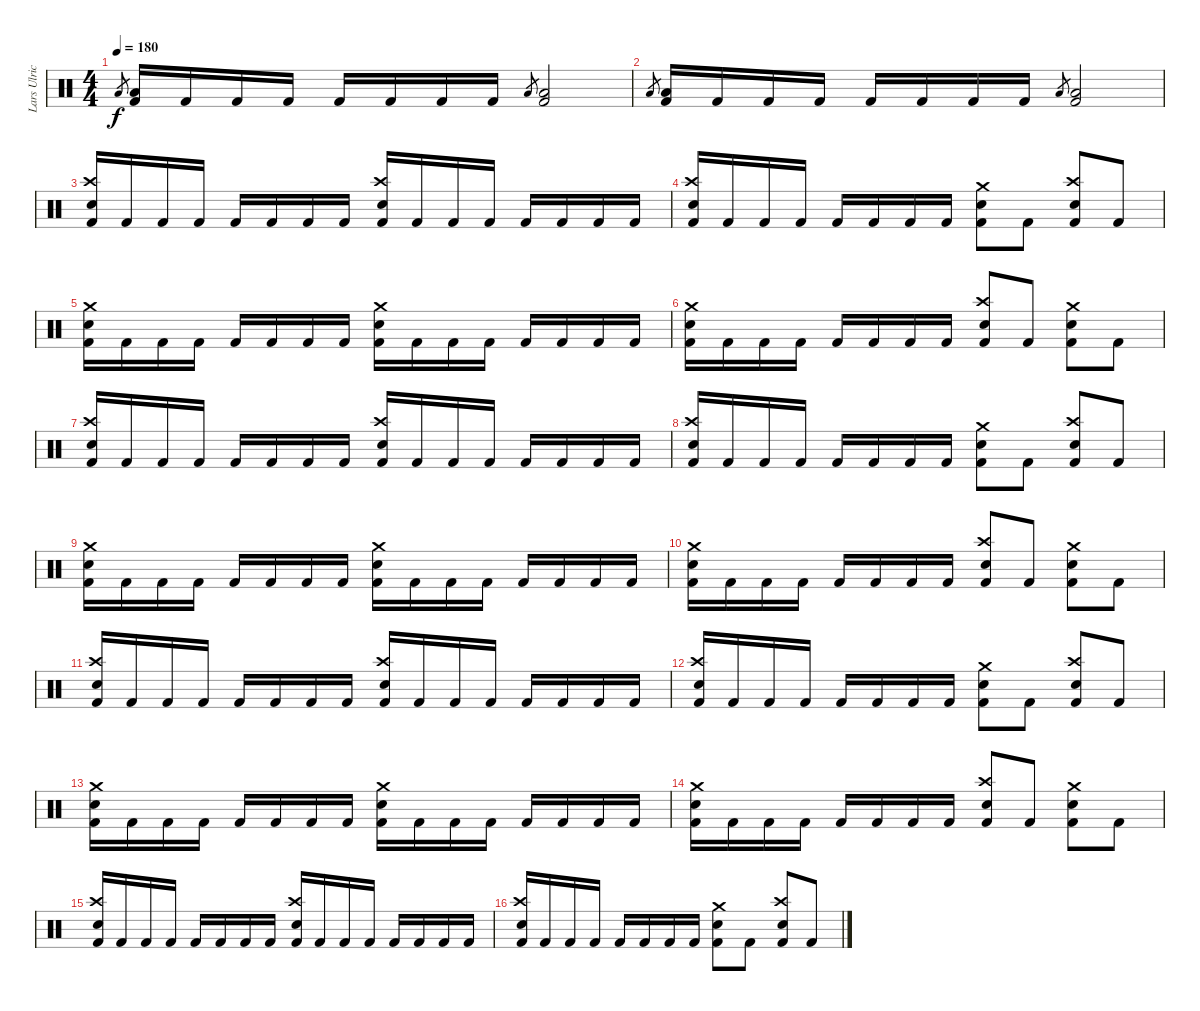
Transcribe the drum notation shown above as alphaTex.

\track ("Lars Ulrich" "Lars Ulric") {instrument percussion}
\staff {score}
\articulation defaults
\ts (4 4)
\tempo 180
\clef neutral
\ks c "Low Floor Tom (hit)".8{gr dy f}
("Low Floor Tom (hit)" "Kick (hit) 2").16 "Kick (hit) 2".16 "Kick (hit) 2".16 "Kick (hit) 2".16 "Kick (hit) 2".16 "Kick (hit) 2".16 "Kick (hit) 2".16 "Kick (hit) 2".16 "Low Floor Tom (hit)".8{gr} ("Low Floor Tom (hit)" "Kick (hit) 2").2 |
"Low Floor Tom (hit)".8{gr} ("Low Floor Tom (hit)" "Kick (hit) 2").16 "Kick (hit) 2".16 "Kick (hit) 2".16 "Kick (hit) 2".16 "Kick (hit) 2".16 "Kick (hit) 2".16 "Kick (hit) 2".16 "Kick (hit) 2".16 "Low Floor Tom (hit)".8{gr} ("Low Floor Tom (hit)" "Kick (hit) 2").2 |
("Crash high (hit)" "Electric Snare (hit)" "Kick (hit) 2").16 "Kick (hit) 2".16 "Kick (hit) 2".16 "Kick (hit) 2".16 "Kick (hit) 2".16 "Kick (hit) 2".16 "Kick (hit) 2".16 "Kick (hit) 2".16 ("Crash high (hit)" "Electric Snare (hit)" "Kick (hit) 2").16 "Kick (hit) 2".16 "Kick (hit) 2".16 "Kick (hit) 2".16 "Kick (hit) 2".16 "Kick (hit) 2".16 "Kick (hit) 2".16 "Kick (hit) 2".16 |
("Crash high (hit)" "Electric Snare (hit)" "Kick (hit) 2").16 "Kick (hit) 2".16 "Kick (hit) 2".16 "Kick (hit) 2".16 "Kick (hit) 2".16 "Kick (hit) 2".16 "Kick (hit) 2".16 "Kick (hit) 2".16 ("Crash medium (hit)" "Electric Snare (hit)" "Kick (hit) 2").8 "Kick (hit) 2".8 ("Crash high (hit)" "Electric Snare (hit)" "Kick (hit) 2").8 "Kick (hit) 2".8 |
("Crash medium (hit)" "Electric Snare (hit)" "Kick (hit) 2").16 "Kick (hit) 2".16 "Kick (hit) 2".16 "Kick (hit) 2".16 "Kick (hit) 2".16 "Kick (hit) 2".16 "Kick (hit) 2".16 "Kick (hit) 2".16 ("Crash medium (hit)" "Electric Snare (hit)" "Kick (hit) 2").16 "Kick (hit) 2".16 "Kick (hit) 2".16 "Kick (hit) 2".16 "Kick (hit) 2".16 "Kick (hit) 2".16 "Kick (hit) 2".16 "Kick (hit) 2".16 |
("Crash medium (hit)" "Electric Snare (hit)" "Kick (hit) 2").16 "Kick (hit) 2".16 "Kick (hit) 2".16 "Kick (hit) 2".16 "Kick (hit) 2".16 "Kick (hit) 2".16 "Kick (hit) 2".16 "Kick (hit) 2".16 ("Crash high (hit)" "Electric Snare (hit)" "Kick (hit) 2").8 "Kick (hit) 2".8 ("Crash medium (hit)" "Electric Snare (hit)" "Kick (hit) 2").8 "Kick (hit) 2".8 |
("Crash high (hit)" "Electric Snare (hit)" "Kick (hit) 2").16 "Kick (hit) 2".16 "Kick (hit) 2".16 "Kick (hit) 2".16 "Kick (hit) 2".16 "Kick (hit) 2".16 "Kick (hit) 2".16 "Kick (hit) 2".16 ("Crash high (hit)" "Electric Snare (hit)" "Kick (hit) 2").16 "Kick (hit) 2".16 "Kick (hit) 2".16 "Kick (hit) 2".16 "Kick (hit) 2".16 "Kick (hit) 2".16 "Kick (hit) 2".16 "Kick (hit) 2".16 |
("Crash high (hit)" "Electric Snare (hit)" "Kick (hit) 2").16 "Kick (hit) 2".16 "Kick (hit) 2".16 "Kick (hit) 2".16 "Kick (hit) 2".16 "Kick (hit) 2".16 "Kick (hit) 2".16 "Kick (hit) 2".16 ("Crash medium (hit)" "Electric Snare (hit)" "Kick (hit) 2").8 "Kick (hit) 2".8 ("Crash high (hit)" "Electric Snare (hit)" "Kick (hit) 2").8 "Kick (hit) 2".8 |
("Crash medium (hit)" "Electric Snare (hit)" "Kick (hit) 2").16 "Kick (hit) 2".16 "Kick (hit) 2".16 "Kick (hit) 2".16 "Kick (hit) 2".16 "Kick (hit) 2".16 "Kick (hit) 2".16 "Kick (hit) 2".16 ("Crash medium (hit)" "Electric Snare (hit)" "Kick (hit) 2").16 "Kick (hit) 2".16 "Kick (hit) 2".16 "Kick (hit) 2".16 "Kick (hit) 2".16 "Kick (hit) 2".16 "Kick (hit) 2".16 "Kick (hit) 2".16 |
("Crash medium (hit)" "Electric Snare (hit)" "Kick (hit) 2").16 "Kick (hit) 2".16 "Kick (hit) 2".16 "Kick (hit) 2".16 "Kick (hit) 2".16 "Kick (hit) 2".16 "Kick (hit) 2".16 "Kick (hit) 2".16 ("Crash high (hit)" "Electric Snare (hit)" "Kick (hit) 2").8 "Kick (hit) 2".8 ("Crash medium (hit)" "Electric Snare (hit)" "Kick (hit) 2").8 "Kick (hit) 2".8 |
("Crash high (hit)" "Electric Snare (hit)" "Kick (hit) 2").16 "Kick (hit) 2".16 "Kick (hit) 2".16 "Kick (hit) 2".16 "Kick (hit) 2".16 "Kick (hit) 2".16 "Kick (hit) 2".16 "Kick (hit) 2".16 ("Crash high (hit)" "Electric Snare (hit)" "Kick (hit) 2").16 "Kick (hit) 2".16 "Kick (hit) 2".16 "Kick (hit) 2".16 "Kick (hit) 2".16 "Kick (hit) 2".16 "Kick (hit) 2".16 "Kick (hit) 2".16 |
("Crash high (hit)" "Electric Snare (hit)" "Kick (hit) 2").16 "Kick (hit) 2".16 "Kick (hit) 2".16 "Kick (hit) 2".16 "Kick (hit) 2".16 "Kick (hit) 2".16 "Kick (hit) 2".16 "Kick (hit) 2".16 ("Crash medium (hit)" "Electric Snare (hit)" "Kick (hit) 2").8 "Kick (hit) 2".8 ("Crash high (hit)" "Electric Snare (hit)" "Kick (hit) 2").8 "Kick (hit) 2".8 |
("Crash medium (hit)" "Electric Snare (hit)" "Kick (hit) 2").16 "Kick (hit) 2".16 "Kick (hit) 2".16 "Kick (hit) 2".16 "Kick (hit) 2".16 "Kick (hit) 2".16 "Kick (hit) 2".16 "Kick (hit) 2".16 ("Crash medium (hit)" "Electric Snare (hit)" "Kick (hit) 2").16 "Kick (hit) 2".16 "Kick (hit) 2".16 "Kick (hit) 2".16 "Kick (hit) 2".16 "Kick (hit) 2".16 "Kick (hit) 2".16 "Kick (hit) 2".16 |
("Crash medium (hit)" "Electric Snare (hit)" "Kick (hit) 2").16 "Kick (hit) 2".16 "Kick (hit) 2".16 "Kick (hit) 2".16 "Kick (hit) 2".16 "Kick (hit) 2".16 "Kick (hit) 2".16 "Kick (hit) 2".16 ("Crash high (hit)" "Electric Snare (hit)" "Kick (hit) 2").8 "Kick (hit) 2".8 ("Crash medium (hit)" "Electric Snare (hit)" "Kick (hit) 2").8 "Kick (hit) 2".8 |
("Crash high (hit)" "Electric Snare (hit)" "Kick (hit) 2").16 "Kick (hit) 2".16 "Kick (hit) 2".16 "Kick (hit) 2".16 "Kick (hit) 2".16 "Kick (hit) 2".16 "Kick (hit) 2".16 "Kick (hit) 2".16 ("Crash high (hit)" "Electric Snare (hit)" "Kick (hit) 2").16 "Kick (hit) 2".16 "Kick (hit) 2".16 "Kick (hit) 2".16 "Kick (hit) 2".16 "Kick (hit) 2".16 "Kick (hit) 2".16 "Kick (hit) 2".16 |
("Crash high (hit)" "Electric Snare (hit)" "Kick (hit) 2").16 "Kick (hit) 2".16 "Kick (hit) 2".16 "Kick (hit) 2".16 "Kick (hit) 2".16 "Kick (hit) 2".16 "Kick (hit) 2".16 "Kick (hit) 2".16 ("Crash medium (hit)" "Electric Snare (hit)" "Kick (hit) 2").8 "Kick (hit) 2".8 ("Crash high (hit)" "Electric Snare (hit)" "Kick (hit) 2").8 "Kick (hit) 2".8
